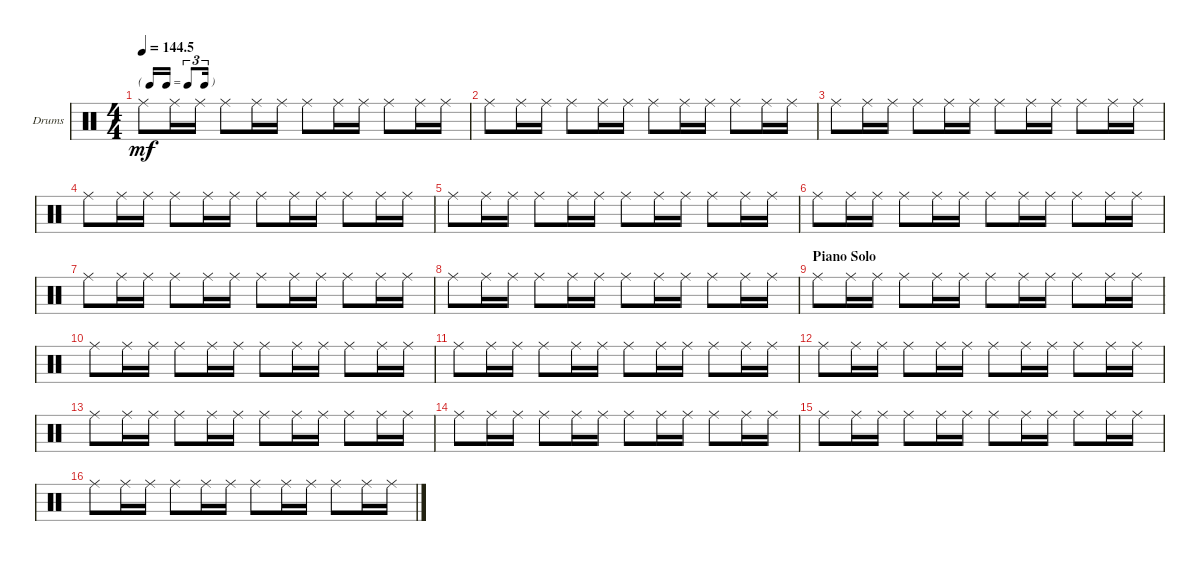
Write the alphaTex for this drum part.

\defaultSystemsLayout 4
\bracketExtendMode groupsimilarinstruments
\firstSystemTrackNameOrientation horizontal
\otherSystemsTrackNameOrientation horizontal
\track ("Drumkit" "Drums") {instrument percussion}
\staff {score}
\articulation defaults
\ts (4 4)
\tf triplet16th
\tempo
144.5
\accidentals auto
\clef neutral
\ottava regular
\simile none
\scale
0.5
\ks c "Ride (middle)".8{dy mf} "Ride (middle)".16 "Ride (middle)".16 "Ride (middle)".8 "Ride (middle)".16 "Ride (middle)".16 "Ride (middle)".8 "Ride (middle)".16 "Ride (middle)".16 "Ride (middle)".8 "Ride (middle)".16 "Ride (middle)".16
|
\scale
0.5 "Ride (middle)".8 "Ride (middle)".16 "Ride (middle)".16 "Ride (middle)".8 "Ride (middle)".16 "Ride (middle)".16 "Ride (middle)".8 "Ride (middle)".16 "Ride (middle)".16 "Ride (middle)".8 "Ride (middle)".16 "Ride (middle)".16 |
\scale
0.5 "Ride (middle)".8 "Ride (middle)".16 "Ride (middle)".16 "Ride (middle)".8 "Ride (middle)".16 "Ride (middle)".16 "Ride (middle)".8 "Ride (middle)".16 "Ride (middle)".16 "Ride (middle)".8 "Ride (middle)".16 "Ride (middle)".16 |
\scale
0.5 "Ride (middle)".8 "Ride (middle)".16 "Ride (middle)".16 "Ride (middle)".8 "Ride (middle)".16 "Ride (middle)".16 "Ride (middle)".8 "Ride (middle)".16 "Ride (middle)".16 "Ride (middle)".8 "Ride (middle)".16 "Ride (middle)".16 |
\scale
0.5 "Ride (middle)".8 "Ride (middle)".16 "Ride (middle)".16 "Ride (middle)".8 "Ride (middle)".16 "Ride (middle)".16 "Ride (middle)".8 "Ride (middle)".16 "Ride (middle)".16 "Ride (middle)".8 "Ride (middle)".16 "Ride (middle)".16 |
\scale
0.5 "Ride (middle)".8 "Ride (middle)".16 "Ride (middle)".16 "Ride (middle)".8 "Ride (middle)".16 "Ride (middle)".16 "Ride (middle)".8 "Ride (middle)".16 "Ride (middle)".16 "Ride (middle)".8 "Ride (middle)".16 "Ride (middle)".16 |
\scale
0.5 "Ride (middle)".8 "Ride (middle)".16 "Ride (middle)".16 "Ride (middle)".8 "Ride (middle)".16 "Ride (middle)".16 "Ride (middle)".8 "Ride (middle)".16 "Ride (middle)".16 "Ride (middle)".8 "Ride (middle)".16 "Ride (middle)".16 |
\scale
0.5 "Ride (middle)".8 "Ride (middle)".16 "Ride (middle)".16 "Ride (middle)".8 "Ride (middle)".16 "Ride (middle)".16 "Ride (middle)".8 "Ride (middle)".16 "Ride (middle)".16 "Ride (middle)".8 "Ride (middle)".16 "Ride (middle)".16 |
\section ("" "Piano Solo")
\scale
0.5 "Ride (middle)".8 "Ride (middle)".16 "Ride (middle)".16 "Ride (middle)".8 "Ride (middle)".16 "Ride (middle)".16 "Ride (middle)".8 "Ride (middle)".16 "Ride (middle)".16 "Ride (middle)".8 "Ride (middle)".16 "Ride (middle)".16 |
\scale
0.5 "Ride (middle)".8 "Ride (middle)".16 "Ride (middle)".16 "Ride (middle)".8 "Ride (middle)".16 "Ride (middle)".16 "Ride (middle)".8 "Ride (middle)".16 "Ride (middle)".16 "Ride (middle)".8 "Ride (middle)".16 "Ride (middle)".16 |
\scale
0.5 "Ride (middle)".8 "Ride (middle)".16 "Ride (middle)".16 "Ride (middle)".8 "Ride (middle)".16 "Ride (middle)".16 "Ride (middle)".8 "Ride (middle)".16 "Ride (middle)".16 "Ride (middle)".8 "Ride (middle)".16 "Ride (middle)".16 |
\scale
0.5 "Ride (middle)".8 "Ride (middle)".16 "Ride (middle)".16 "Ride (middle)".8 "Ride (middle)".16 "Ride (middle)".16 "Ride (middle)".8 "Ride (middle)".16 "Ride (middle)".16 "Ride (middle)".8 "Ride (middle)".16 "Ride (middle)".16 |
\scale
0.5 "Ride (middle)".8 "Ride (middle)".16 "Ride (middle)".16 "Ride (middle)".8 "Ride (middle)".16 "Ride (middle)".16 "Ride (middle)".8 "Ride (middle)".16 "Ride (middle)".16 "Ride (middle)".8 "Ride (middle)".16 "Ride (middle)".16 |
\scale
0.5 "Ride (middle)".8 "Ride (middle)".16 "Ride (middle)".16 "Ride (middle)".8 "Ride (middle)".16 "Ride (middle)".16 "Ride (middle)".8 "Ride (middle)".16 "Ride (middle)".16 "Ride (middle)".8 "Ride (middle)".16 "Ride (middle)".16 |
\scale
0.5 "Ride (middle)".8 "Ride (middle)".16 "Ride (middle)".16 "Ride (middle)".8 "Ride (middle)".16 "Ride (middle)".16 "Ride (middle)".8 "Ride (middle)".16 "Ride (middle)".16 "Ride (middle)".8 "Ride (middle)".16 "Ride (middle)".16 |
\scale
0.5 "Ride (middle)".8 "Ride (middle)".16 "Ride (middle)".16 "Ride (middle)".8 "Ride (middle)".16 "Ride (middle)".16 "Ride (middle)".8 "Ride (middle)".16 "Ride (middle)".16 "Ride (middle)".8 "Ride (middle)".16 "Ride (middle)".16
